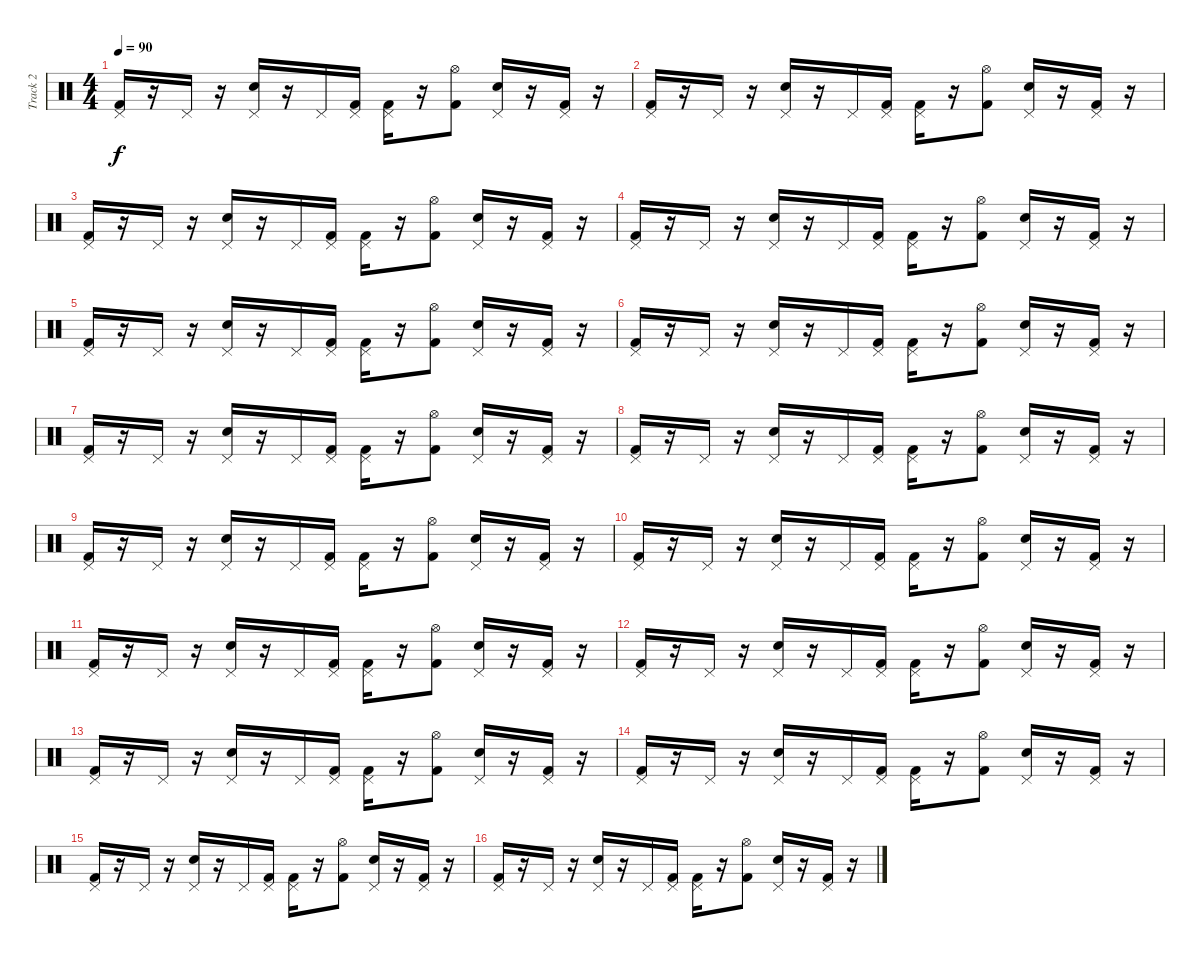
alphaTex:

\track ("Track 2" "Track 2") {instrument percussion}
\staff {score}
\articulation defaults
\ts (4 4)
\tempo 90
\clef neutral
\ks c
("Pedal Hi-Hat (hit)" "Kick (hit) 2").16{dy f} r.16 "Pedal Hi-Hat (hit)".16 r.16 ("Pedal Hi-Hat (hit)" "Electric Snare (hit)").16 r.16 "Pedal Hi-Hat (hit)".16 ("Pedal Hi-Hat (hit)" "Kick (hit) 2").16 ("Pedal Hi-Hat (hit)" "Kick (hit) 2").16 r.16 ("Hi-Hat (open)" "Kick (hit) 2").8 ("Pedal Hi-Hat (hit)" "Electric Snare (hit)").16 r.16 ("Pedal Hi-Hat (hit)" "Kick (hit) 2").16 r.16 |
("Pedal Hi-Hat (hit)" "Kick (hit) 2").16 r.16 "Pedal Hi-Hat (hit)".16 r.16 ("Pedal Hi-Hat (hit)" "Electric Snare (hit)").16 r.16 "Pedal Hi-Hat (hit)".16 ("Pedal Hi-Hat (hit)" "Kick (hit) 2").16 ("Pedal Hi-Hat (hit)" "Kick (hit) 2").16 r.16 ("Hi-Hat (open)" "Kick (hit) 2").8 ("Pedal Hi-Hat (hit)" "Electric Snare (hit)").16 r.16 ("Pedal Hi-Hat (hit)" "Kick (hit) 2").16 r.16 |
("Pedal Hi-Hat (hit)" "Kick (hit) 2").16 r.16 "Pedal Hi-Hat (hit)".16 r.16 ("Pedal Hi-Hat (hit)" "Electric Snare (hit)").16 r.16 "Pedal Hi-Hat (hit)".16 ("Pedal Hi-Hat (hit)" "Kick (hit) 2").16 ("Pedal Hi-Hat (hit)" "Kick (hit) 2").16 r.16 ("Hi-Hat (open)" "Kick (hit) 2").8 ("Pedal Hi-Hat (hit)" "Electric Snare (hit)").16 r.16 ("Pedal Hi-Hat (hit)" "Kick (hit) 2").16 r.16 |
("Pedal Hi-Hat (hit)" "Kick (hit) 2").16 r.16 "Pedal Hi-Hat (hit)".16 r.16 ("Pedal Hi-Hat (hit)" "Electric Snare (hit)").16 r.16 "Pedal Hi-Hat (hit)".16 ("Pedal Hi-Hat (hit)" "Kick (hit) 2").16 ("Pedal Hi-Hat (hit)" "Kick (hit) 2").16 r.16 ("Hi-Hat (open)" "Kick (hit) 2").8 ("Pedal Hi-Hat (hit)" "Electric Snare (hit)").16 r.16 ("Pedal Hi-Hat (hit)" "Kick (hit) 2").16 r.16 |
("Pedal Hi-Hat (hit)" "Kick (hit) 2").16 r.16 "Pedal Hi-Hat (hit)".16 r.16 ("Pedal Hi-Hat (hit)" "Electric Snare (hit)").16 r.16 "Pedal Hi-Hat (hit)".16 ("Pedal Hi-Hat (hit)" "Kick (hit) 2").16 ("Pedal Hi-Hat (hit)" "Kick (hit) 2").16 r.16 ("Hi-Hat (open)" "Kick (hit) 2").8 ("Pedal Hi-Hat (hit)" "Electric Snare (hit)").16 r.16 ("Pedal Hi-Hat (hit)" "Kick (hit) 2").16 r.16 |
("Pedal Hi-Hat (hit)" "Kick (hit) 2").16 r.16 "Pedal Hi-Hat (hit)".16 r.16 ("Pedal Hi-Hat (hit)" "Electric Snare (hit)").16 r.16 "Pedal Hi-Hat (hit)".16 ("Pedal Hi-Hat (hit)" "Kick (hit) 2").16 ("Pedal Hi-Hat (hit)" "Kick (hit) 2").16 r.16 ("Hi-Hat (open)" "Kick (hit) 2").8 ("Pedal Hi-Hat (hit)" "Electric Snare (hit)").16 r.16 ("Pedal Hi-Hat (hit)" "Kick (hit) 2").16 r.16 |
("Pedal Hi-Hat (hit)" "Kick (hit) 2").16 r.16 "Pedal Hi-Hat (hit)".16 r.16 ("Pedal Hi-Hat (hit)" "Electric Snare (hit)").16 r.16 "Pedal Hi-Hat (hit)".16 ("Pedal Hi-Hat (hit)" "Kick (hit) 2").16 ("Pedal Hi-Hat (hit)" "Kick (hit) 2").16 r.16 ("Hi-Hat (open)" "Kick (hit) 2").8 ("Pedal Hi-Hat (hit)" "Electric Snare (hit)").16 r.16 ("Pedal Hi-Hat (hit)" "Kick (hit) 2").16 r.16 |
("Pedal Hi-Hat (hit)" "Kick (hit) 2").16 r.16 "Pedal Hi-Hat (hit)".16 r.16 ("Pedal Hi-Hat (hit)" "Electric Snare (hit)").16 r.16 "Pedal Hi-Hat (hit)".16 ("Pedal Hi-Hat (hit)" "Kick (hit) 2").16 ("Pedal Hi-Hat (hit)" "Kick (hit) 2").16 r.16 ("Hi-Hat (open)" "Kick (hit) 2").8 ("Pedal Hi-Hat (hit)" "Electric Snare (hit)").16 r.16 ("Pedal Hi-Hat (hit)" "Kick (hit) 2").16 r.16 |
("Pedal Hi-Hat (hit)" "Kick (hit) 2").16 r.16 "Pedal Hi-Hat (hit)".16 r.16 ("Pedal Hi-Hat (hit)" "Electric Snare (hit)").16 r.16 "Pedal Hi-Hat (hit)".16 ("Pedal Hi-Hat (hit)" "Kick (hit) 2").16 ("Pedal Hi-Hat (hit)" "Kick (hit) 2").16 r.16 ("Hi-Hat (open)" "Kick (hit) 2").8 ("Pedal Hi-Hat (hit)" "Electric Snare (hit)").16 r.16 ("Pedal Hi-Hat (hit)" "Kick (hit) 2").16 r.16 |
("Pedal Hi-Hat (hit)" "Kick (hit) 2").16 r.16 "Pedal Hi-Hat (hit)".16 r.16 ("Pedal Hi-Hat (hit)" "Electric Snare (hit)").16 r.16 "Pedal Hi-Hat (hit)".16 ("Pedal Hi-Hat (hit)" "Kick (hit) 2").16 ("Pedal Hi-Hat (hit)" "Kick (hit) 2").16 r.16 ("Hi-Hat (open)" "Kick (hit) 2").8 ("Pedal Hi-Hat (hit)" "Electric Snare (hit)").16 r.16 ("Pedal Hi-Hat (hit)" "Kick (hit) 2").16 r.16 |
("Pedal Hi-Hat (hit)" "Kick (hit) 2").16 r.16 "Pedal Hi-Hat (hit)".16 r.16 ("Pedal Hi-Hat (hit)" "Electric Snare (hit)").16 r.16 "Pedal Hi-Hat (hit)".16 ("Pedal Hi-Hat (hit)" "Kick (hit) 2").16 ("Pedal Hi-Hat (hit)" "Kick (hit) 2").16 r.16 ("Hi-Hat (open)" "Kick (hit) 2").8 ("Pedal Hi-Hat (hit)" "Electric Snare (hit)").16 r.16 ("Pedal Hi-Hat (hit)" "Kick (hit) 2").16 r.16 |
("Pedal Hi-Hat (hit)" "Kick (hit) 2").16 r.16 "Pedal Hi-Hat (hit)".16 r.16 ("Pedal Hi-Hat (hit)" "Electric Snare (hit)").16 r.16 "Pedal Hi-Hat (hit)".16 ("Pedal Hi-Hat (hit)" "Kick (hit) 2").16 ("Pedal Hi-Hat (hit)" "Kick (hit) 2").16 r.16 ("Hi-Hat (open)" "Kick (hit) 2").8 ("Pedal Hi-Hat (hit)" "Electric Snare (hit)").16 r.16 ("Pedal Hi-Hat (hit)" "Kick (hit) 2").16 r.16 |
("Pedal Hi-Hat (hit)" "Kick (hit) 2").16 r.16 "Pedal Hi-Hat (hit)".16 r.16 ("Pedal Hi-Hat (hit)" "Electric Snare (hit)").16 r.16 "Pedal Hi-Hat (hit)".16 ("Pedal Hi-Hat (hit)" "Kick (hit) 2").16 ("Pedal Hi-Hat (hit)" "Kick (hit) 2").16 r.16 ("Hi-Hat (open)" "Kick (hit) 2").8 ("Pedal Hi-Hat (hit)" "Electric Snare (hit)").16 r.16 ("Pedal Hi-Hat (hit)" "Kick (hit) 2").16 r.16 |
("Pedal Hi-Hat (hit)" "Kick (hit) 2").16 r.16 "Pedal Hi-Hat (hit)".16 r.16 ("Pedal Hi-Hat (hit)" "Electric Snare (hit)").16 r.16 "Pedal Hi-Hat (hit)".16 ("Pedal Hi-Hat (hit)" "Kick (hit) 2").16 ("Pedal Hi-Hat (hit)" "Kick (hit) 2").16 r.16 ("Hi-Hat (open)" "Kick (hit) 2").8 ("Pedal Hi-Hat (hit)" "Electric Snare (hit)").16 r.16 ("Pedal Hi-Hat (hit)" "Kick (hit) 2").16 r.16 |
("Pedal Hi-Hat (hit)" "Kick (hit) 2").16 r.16 "Pedal Hi-Hat (hit)".16 r.16 ("Pedal Hi-Hat (hit)" "Electric Snare (hit)").16 r.16 "Pedal Hi-Hat (hit)".16 ("Pedal Hi-Hat (hit)" "Kick (hit) 2").16 ("Pedal Hi-Hat (hit)" "Kick (hit) 2").16 r.16 ("Hi-Hat (open)" "Kick (hit) 2").8 ("Pedal Hi-Hat (hit)" "Electric Snare (hit)").16 r.16 ("Pedal Hi-Hat (hit)" "Kick (hit) 2").16 r.16 |
("Pedal Hi-Hat (hit)" "Kick (hit) 2").16 r.16 "Pedal Hi-Hat (hit)".16 r.16 ("Pedal Hi-Hat (hit)" "Electric Snare (hit)").16 r.16 "Pedal Hi-Hat (hit)".16 ("Pedal Hi-Hat (hit)" "Kick (hit) 2").16 ("Pedal Hi-Hat (hit)" "Kick (hit) 2").16 r.16 ("Hi-Hat (open)" "Kick (hit) 2").8 ("Pedal Hi-Hat (hit)" "Electric Snare (hit)").16 r.16 ("Pedal Hi-Hat (hit)" "Kick (hit) 2").16 r.16
